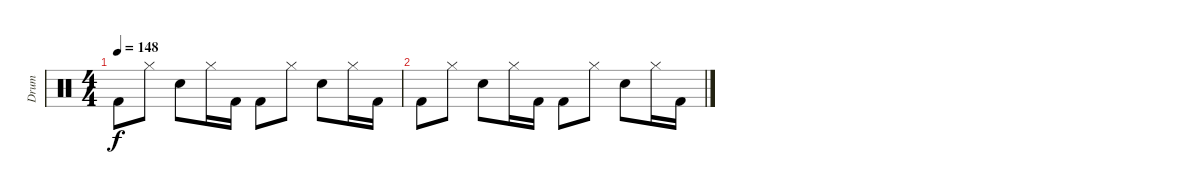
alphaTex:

\track ("Drum" "Drum") {instrument percussion}
\staff {score}
\articulation defaults
\ts (4 4)
\tempo 148
\clef neutral
\ks c "Kick (hit) 2".8{dy f} "Hi-Hat (closed)".8 "Electric Snare (hit)".8 "Hi-Hat (closed)".16 "Kick (hit) 2".16 "Kick (hit) 2".8 "Hi-Hat (closed)".8 "Electric Snare (hit)".8 "Hi-Hat (closed)".16 "Kick (hit) 2".16
|
"Kick (hit) 2".8 "Hi-Hat (closed)".8 "Electric Snare (hit)".8 "Hi-Hat (closed)".16 "Kick (hit) 2".16 "Kick (hit) 2".8 "Hi-Hat (closed)".8 "Electric Snare (hit)".8 "Hi-Hat (closed)".16 "Kick (hit) 2".16
